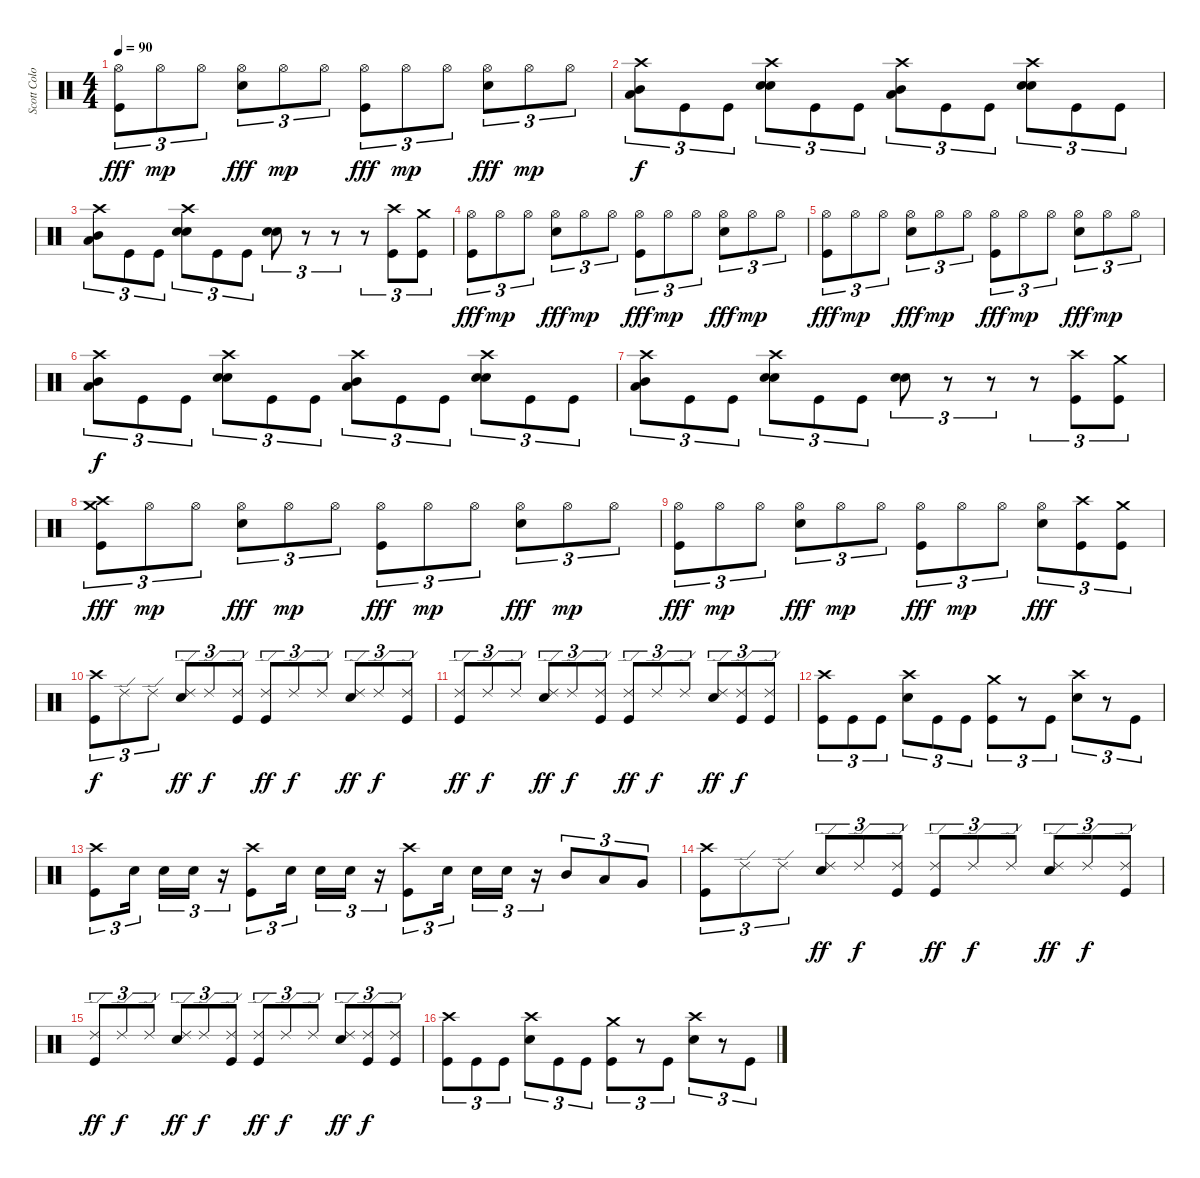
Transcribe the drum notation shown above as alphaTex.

\track ("Scott Colombus" "Scott Colo") {instrument percussion}
\staff {score}
\articulation defaults
\ts (4 4)
\tempo 90
\clef neutral
\ks c
("Hi-Hat (open)" "Kick (hit)").8{tu (3 2) dy fff} "Hi-Hat (open)".8{tu (3 2) dy mp} "Hi-Hat (open)".8{tu (3 2)} ("Hi-Hat (open)" "Snare (hit) 2").8{tu (3 2) dy fff} "Hi-Hat (open)".8{tu (3 2) dy mp} "Hi-Hat (open)".8{tu (3 2)} ("Hi-Hat (open)" "Kick (hit)").8{tu (3 2) dy fff} "Hi-Hat (open)".8{tu (3 2) dy mp} "Hi-Hat (open)".8{tu (3 2)} ("Hi-Hat (open)" "Snare (hit) 2").8{tu (3 2) dy fff} "Hi-Hat (open)".8{tu (3 2) dy mp} "Hi-Hat (open)".8{tu (3 2)} |
("Crash high (hit)" "Low Tom (hit)" "Mid Tom (hit)").8{tu (3 2) dy f} "Kick (hit)".8{tu (3 2)} "Kick (hit)".8{tu (3 2)} ("Crash high (hit)" "Snare (hit) 2" "Snare (hit) 2").8{tu (3 2)} "Kick (hit)".8{tu (3 2)} "Kick (hit)".8{tu (3 2)} ("Crash high (hit)" "Mid Tom (hit)" "Low Tom (hit)").8{tu (3 2)} "Kick (hit)".8{tu (3 2)} "Kick (hit)".8{tu (3 2)} ("Crash high (hit)" "Snare (hit) 2" "Snare (hit) 2").8{tu (3 2)} "Kick (hit)".8{tu (3 2)} "Kick (hit)".8{tu (3 2)} |
("Crash high (hit)" "Low Tom (hit)" "Mid Tom (hit)").8{tu (3 2)} "Kick (hit)".8{tu (3 2)} "Kick (hit)".8{tu (3 2)} ("Crash high (hit)" "Snare (hit) 2" "Snare (hit) 2").8{tu (3 2)} "Kick (hit)".8{tu (3 2)} "Kick (hit)".8{tu (3 2)} ("Snare (hit) 2" "Snare (hit) 2").8{tu (3 2)} r.8{tu (3 2)} r.8{tu (3 2)} r.8{tu (3 2)} ("Crash high (hit)" "Kick (hit)").8{tu (3 2)} ("Crash medium (hit)" "Kick (hit)").8{tu (3 2)} |
("Hi-Hat (open)" "Kick (hit)").8{tu (3 2) dy fff} "Hi-Hat (open)".8{tu (3 2) dy mp} "Hi-Hat (open)".8{tu (3 2)} ("Hi-Hat (open)" "Snare (hit) 2").8{tu (3 2) dy fff} "Hi-Hat (open)".8{tu (3 2) dy mp} "Hi-Hat (open)".8{tu (3 2)} ("Hi-Hat (open)" "Kick (hit)").8{tu (3 2) dy fff} "Hi-Hat (open)".8{tu (3 2) dy mp} "Hi-Hat (open)".8{tu (3 2)} ("Hi-Hat (open)" "Snare (hit) 2").8{tu (3 2) dy fff} "Hi-Hat (open)".8{tu (3 2) dy mp} "Hi-Hat (open)".8{tu (3 2)} |
("Hi-Hat (open)" "Kick (hit)").8{tu (3 2) dy fff} "Hi-Hat (open)".8{tu (3 2) dy mp} "Hi-Hat (open)".8{tu (3 2)} ("Hi-Hat (open)" "Snare (hit) 2").8{tu (3 2) dy fff} "Hi-Hat (open)".8{tu (3 2) dy mp} "Hi-Hat (open)".8{tu (3 2)} ("Hi-Hat (open)" "Kick (hit)").8{tu (3 2) dy fff} "Hi-Hat (open)".8{tu (3 2) dy mp} "Hi-Hat (open)".8{tu (3 2)} ("Hi-Hat (open)" "Snare (hit) 2").8{tu (3 2) dy fff} "Hi-Hat (open)".8{tu (3 2) dy mp} "Hi-Hat (open)".8{tu (3 2)} |
("Crash high (hit)" "Low Tom (hit)" "Mid Tom (hit)").8{tu (3 2) dy f} "Kick (hit)".8{tu (3 2)} "Kick (hit)".8{tu (3 2)} ("Crash high (hit)" "Snare (hit) 2" "Snare (hit) 2").8{tu (3 2)} "Kick (hit)".8{tu (3 2)} "Kick (hit)".8{tu (3 2)} ("Crash high (hit)" "Mid Tom (hit)" "Low Tom (hit)").8{tu (3 2)} "Kick (hit)".8{tu (3 2)} "Kick (hit)".8{tu (3 2)} ("Crash high (hit)" "Snare (hit) 2" "Snare (hit) 2").8{tu (3 2)} "Kick (hit)".8{tu (3 2)} "Kick (hit)".8{tu (3 2)} |
("Crash high (hit)" "Low Tom (hit)" "Mid Tom (hit)").8{tu (3 2)} "Kick (hit)".8{tu (3 2)} "Kick (hit)".8{tu (3 2)} ("Crash high (hit)" "Snare (hit) 2" "Snare (hit) 2").8{tu (3 2)} "Kick (hit)".8{tu (3 2)} "Kick (hit)".8{tu (3 2)} ("Snare (hit) 2" "Snare (hit) 2").8{tu (3 2)} r.8{tu (3 2)} r.8{tu (3 2)} r.8{tu (3 2)} ("Crash high (hit)" "Kick (hit)").8{tu (3 2)} ("Crash medium (hit)" "Kick (hit)").8{tu (3 2)} |
("Crash high (hit)" "Crash medium (hit)" "Kick (hit)").8{tu (3 2) dy fff} "Hi-Hat (open)".8{tu (3 2) dy mp} "Hi-Hat (open)".8{tu (3 2)} ("Hi-Hat (open)" "Snare (hit) 2").8{tu (3 2) dy fff} "Hi-Hat (open)".8{tu (3 2) dy mp} "Hi-Hat (open)".8{tu (3 2)} ("Hi-Hat (open)" "Kick (hit)").8{tu (3 2) dy fff} "Hi-Hat (open)".8{tu (3 2) dy mp} "Hi-Hat (open)".8{tu (3 2)} ("Hi-Hat (open)" "Snare (hit) 2").8{tu (3 2) dy fff} "Hi-Hat (open)".8{tu (3 2) dy mp} "Hi-Hat (open)".8{tu (3 2)} |
("Hi-Hat (open)" "Kick (hit)").8{tu (3 2) dy fff} "Hi-Hat (open)".8{tu (3 2) dy mp} "Hi-Hat (open)".8{tu (3 2)} ("Hi-Hat (open)" "Snare (hit) 2").8{tu (3 2) dy fff} "Hi-Hat (open)".8{tu (3 2) dy mp} "Hi-Hat (open)".8{tu (3 2)} ("Hi-Hat (open)" "Kick (hit)").8{tu (3 2) dy fff} "Hi-Hat (open)".8{tu (3 2) dy mp} "Hi-Hat (open)".8{tu (3 2)} ("Hi-Hat (open)" "Snare (hit) 2").8{tu (3 2) dy fff} ("Crash high (hit)" "Kick (hit)").8{tu (3 2)} ("Crash medium (hit)" "Kick (hit)").8{tu (3 2)} |
("Crash high (hit)" "Kick (hit)").8{tu (3 2) dy f} "Ride (edge) 2".8{tu (3 2)} "Ride (edge) 2".8{tu (3 2)} ("Ride (edge) 2" "Snare (hit) 2").8{tu (3 2) dy ff} "Ride (edge) 2".8{tu (3 2) dy f} ("Ride (edge) 2" "Kick (hit)").8{tu (3 2)} ("Ride (edge) 2" "Kick (hit)").8{tu (3 2) dy ff} "Ride (edge) 2".8{tu (3 2) dy f} "Ride (edge) 2".8{tu (3 2)} ("Ride (edge) 2" "Snare (hit) 2").8{tu (3 2) dy ff} "Ride (edge) 2".8{tu (3 2) dy f} ("Ride (edge) 2" "Kick (hit)").8{tu (3 2)} |
("Ride (edge) 2" "Kick (hit)").8{tu (3 2) dy ff} "Ride (edge) 2".8{tu (3 2) dy f} "Ride (edge) 2".8{tu (3 2)} ("Ride (edge) 2" "Snare (hit) 2").8{tu (3 2) dy ff} "Ride (edge) 2".8{tu (3 2) dy f} ("Ride (edge) 2" "Kick (hit)").8{tu (3 2)} ("Ride (edge) 2" "Kick (hit)").8{tu (3 2) dy ff} "Ride (edge) 2".8{tu (3 2) dy f} "Ride (edge) 2".8{tu (3 2)} ("Ride (edge) 2" "Snare (hit) 2").8{tu (3 2) dy ff} ("Ride (edge) 2" "Kick (hit)").8{tu (3 2) dy f} ("Ride (edge) 2" "Kick (hit)").8{tu (3 2)} |
("Crash high (hit)" "Kick (hit)").8{tu (3 2)} "Kick (hit)".8{tu (3 2)} "Kick (hit)".8{tu (3 2)} ("Crash high (hit)" "Snare (hit) 2").8{tu (3 2)} "Kick (hit)".8{tu (3 2)} "Kick (hit)".8{tu (3 2)} ("Crash medium (hit)" "Kick (hit)").8{tu (3 2)} r.8{tu (3 2)} "Kick (hit)".8{tu (3 2)} ("Crash high (hit)" "Snare (hit) 2").8{tu (3 2)} r.8{tu (3 2)} "Kick (hit)".8{tu (3 2)} |
("Crash high (hit)" "Kick (hit)").8{tu (3 2)} "Snare (hit) 2".16{tu (3 2)} "Snare (hit) 2".16{tu (3 2)} "Snare (hit) 2".16{tu (3 2)} r.16{tu (3 2)} ("Crash high (hit)" "Kick (hit)").8{tu (3 2)} "Snare (hit) 2".16{tu (3 2)} "Snare (hit) 2".16{tu (3 2)} "Snare (hit) 2".16{tu (3 2)} r.16{tu (3 2)} ("Crash high (hit)" "Kick (hit)").8{tu (3 2)} "Snare (hit) 2".16{tu (3 2)} "Snare (hit) 2".16{tu (3 2)} "Snare (hit) 2".16{tu (3 2)} r.16{tu (3 2)} "Mid Tom (hit)".8{tu (3 2)} "Low Tom (hit)".8{tu (3 2)} "Very Low Tom (hit)".8{tu (3 2)} |
("Crash high (hit)" "Kick (hit)").8{tu (3 2)} "Ride (edge) 2".8{tu (3 2)} "Ride (edge) 2".8{tu (3 2)} ("Ride (edge) 2" "Snare (hit) 2").8{tu (3 2) dy ff} "Ride (edge) 2".8{tu (3 2) dy f} ("Ride (edge) 2" "Kick (hit)").8{tu (3 2)} ("Ride (edge) 2" "Kick (hit)").8{tu (3 2) dy ff} "Ride (edge) 2".8{tu (3 2) dy f} "Ride (edge) 2".8{tu (3 2)} ("Ride (edge) 2" "Snare (hit) 2").8{tu (3 2) dy ff} "Ride (edge) 2".8{tu (3 2) dy f} ("Ride (edge) 2" "Kick (hit)").8{tu (3 2)} |
("Ride (edge) 2" "Kick (hit)").8{tu (3 2) dy ff} "Ride (edge) 2".8{tu (3 2) dy f} "Ride (edge) 2".8{tu (3 2)} ("Ride (edge) 2" "Snare (hit) 2").8{tu (3 2) dy ff} "Ride (edge) 2".8{tu (3 2) dy f} ("Ride (edge) 2" "Kick (hit)").8{tu (3 2)} ("Ride (edge) 2" "Kick (hit)").8{tu (3 2) dy ff} "Ride (edge) 2".8{tu (3 2) dy f} "Ride (edge) 2".8{tu (3 2)} ("Ride (edge) 2" "Snare (hit) 2").8{tu (3 2) dy ff} ("Ride (edge) 2" "Kick (hit)").8{tu (3 2) dy f} ("Ride (edge) 2" "Kick (hit)").8{tu (3 2)} |
("Crash high (hit)" "Kick (hit)").8{tu (3 2)} "Kick (hit)".8{tu (3 2)} "Kick (hit)".8{tu (3 2)} ("Crash high (hit)" "Snare (hit) 2").8{tu (3 2)} "Kick (hit)".8{tu (3 2)} "Kick (hit)".8{tu (3 2)} ("Crash medium (hit)" "Kick (hit)").8{tu (3 2)} r.8{tu (3 2)} "Kick (hit)".8{tu (3 2)} ("Crash high (hit)" "Snare (hit) 2").8{tu (3 2)} r.8{tu (3 2)} "Kick (hit)".8{tu (3 2)}
